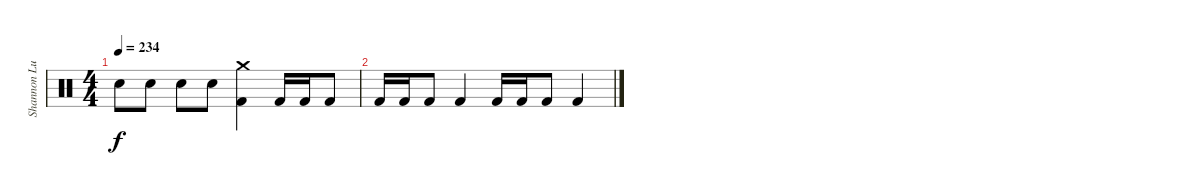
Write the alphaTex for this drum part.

\track ("Shannon Lucas (Drums)" "Shannon Lu") {instrument percussion}
\staff {score}
\articulation defaults
\ts (4 4)
\tempo 234
\clef neutral
\ks c "Snare (hit) 2".8{dy f} "Snare (hit) 2".8 "Snare (hit) 2".8 "Snare (hit) 2".8
("Kick (hit) 2" "Crash medium (hit)").4 "Kick (hit) 2".16 "Kick (hit) 2".16 "Kick (hit) 2".8 |
"Kick (hit) 2".16 "Kick (hit) 2".16 "Kick (hit) 2".8 "Kick (hit) 2".4 "Kick (hit) 2".16 "Kick (hit) 2".16 "Kick (hit) 2".8 "Kick (hit) 2".4
